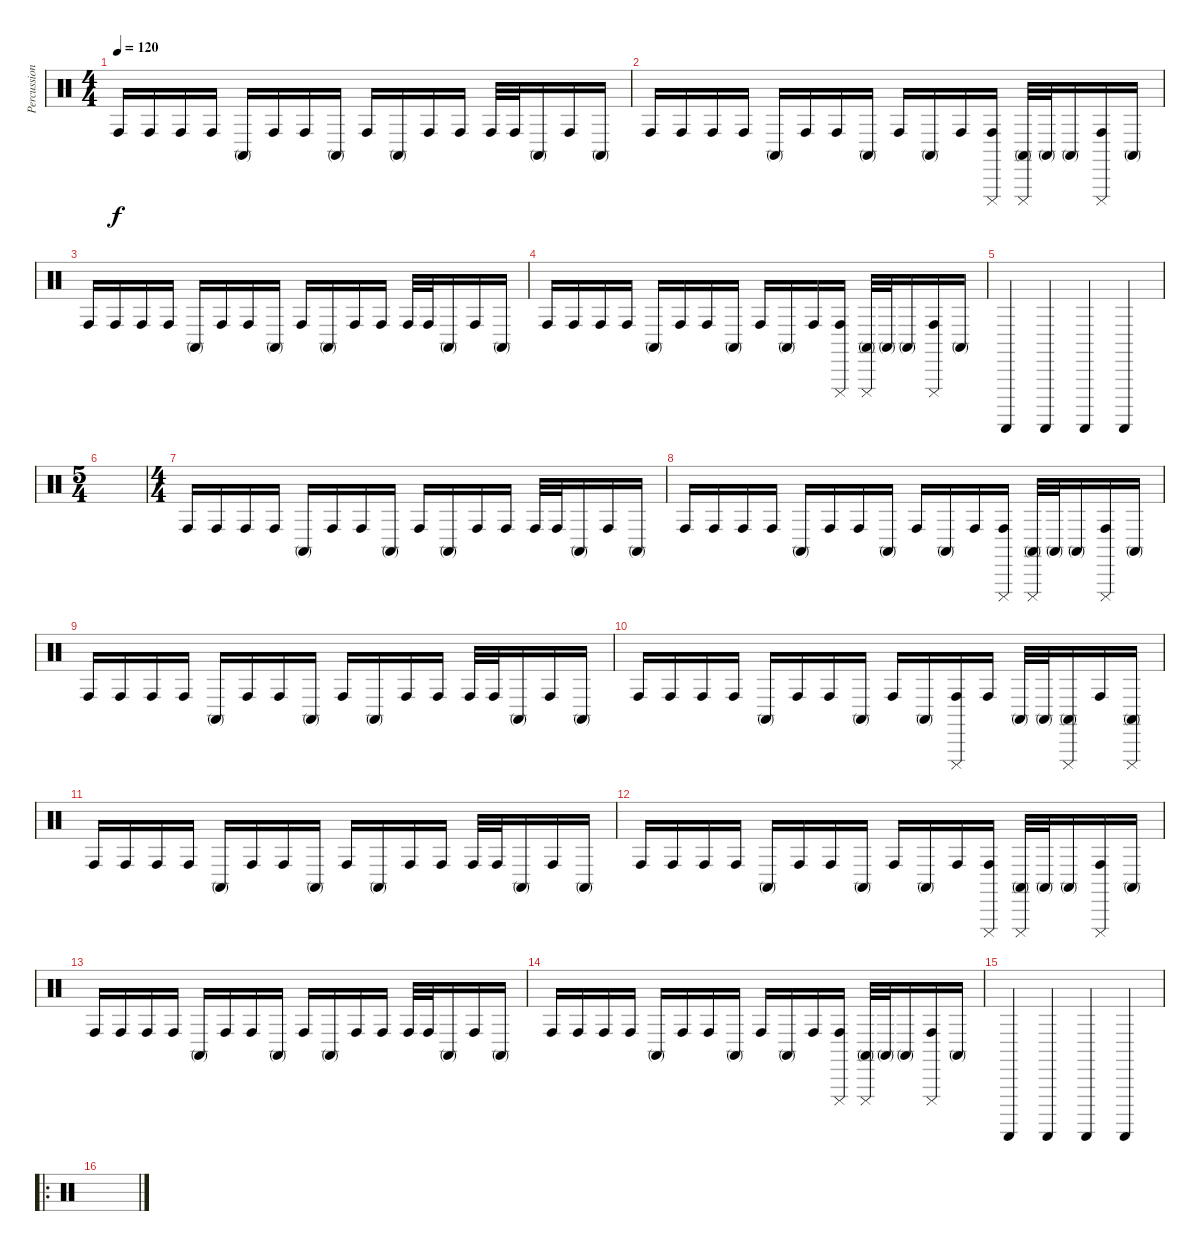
\track ("Percussion" "Percussion") {instrument percussion}
\staff {score}
\articulation defaults
\ts (4 4)
\tempo 120
\clef neutral
\ks c "Conga high (hit)".16{dy f} "Conga high (hit)".16 "Conga high (hit)".16 "Conga high (hit)".16 "Conga high (mute)".16 "Conga high (hit)".16 "Conga high (hit)".16 "Conga high (mute)".16 "Conga high (hit)".16 "Conga high (mute)".16 "Conga high (hit)".16 "Conga high (hit)".16 "Conga high (hit)".32 "Conga high (hit)".32 "Conga high (mute)".16 "Conga high (hit)".16 "Conga high (mute)".16
|
"Conga high (hit)".16 "Conga high (hit)".16 "Conga high (hit)".16 "Conga high (hit)".16 "Conga high (mute)".16 "Conga high (hit)".16 "Conga high (hit)".16 "Conga high (mute)".16 "Conga high (hit)".16 "Conga high (mute)".16 "Conga high (hit)".16 ("Cuica (mute)" "Conga high (hit)").16 ("Cuica (mute)" "Conga high (mute)").32 "Conga high (mute)".32 "Conga high (mute)".16 ("Cuica (mute)" "Conga high (hit)").16 "Conga high (mute)".16 |
"Conga high (hit)".16 "Conga high (hit)".16 "Conga high (hit)".16 "Conga high (hit)".16 "Conga high (mute)".16 "Conga high (hit)".16 "Conga high (hit)".16 "Conga high (mute)".16 "Conga high (hit)".16 "Conga high (mute)".16 "Conga high (hit)".16 "Conga high (hit)".16 "Conga high (hit)".32 "Conga high (hit)".32 "Conga high (mute)".16 "Conga high (hit)".16 "Conga high (mute)".16 |
"Conga high (hit)".16 "Conga high (hit)".16 "Conga high (hit)".16 "Conga high (hit)".16 "Conga high (mute)".16 "Conga high (hit)".16 "Conga high (hit)".16 "Conga high (mute)".16 "Conga high (hit)".16 "Conga high (mute)".16 "Conga high (hit)".16 ("Cuica (mute)" "Conga high (hit)").16 ("Cuica (mute)" "Conga high (mute)").32 "Conga high (mute)".32 "Conga high (mute)".16 ("Cuica (mute)" "Conga high (hit)").16 "Conga high (mute)".16 |
"Guiro (scrap-return)".4 "Guiro (scrap-return)".4 "Guiro (scrap-return)".4 "Guiro (scrap-return)".4 |
\ts (5 4)
|
\ts (4 4)
"Conga high (hit)".16 "Conga high (hit)".16 "Conga high (hit)".16 "Conga high (hit)".16 "Conga high (mute)".16 "Conga high (hit)".16 "Conga high (hit)".16 "Conga high (mute)".16 "Conga high (hit)".16 "Conga high (mute)".16 "Conga high (hit)".16 "Conga high (hit)".16 "Conga high (hit)".32 "Conga high (hit)".32 "Conga high (mute)".16 "Conga high (hit)".16 "Conga high (mute)".16 |
"Conga high (hit)".16 "Conga high (hit)".16 "Conga high (hit)".16 "Conga high (hit)".16 "Conga high (mute)".16 "Conga high (hit)".16 "Conga high (hit)".16 "Conga high (mute)".16 "Conga high (hit)".16 "Conga high (mute)".16 "Conga high (hit)".16 ("Cuica (mute)" "Conga high (hit)").16 ("Cuica (mute)" "Conga high (mute)").32 "Conga high (mute)".32 "Conga high (mute)".16 ("Cuica (mute)" "Conga high (hit)").16 "Conga high (mute)".16 |
"Conga high (hit)".16 "Conga high (hit)".16 "Conga high (hit)".16 "Conga high (hit)".16 "Conga high (mute)".16 "Conga high (hit)".16 "Conga high (hit)".16 "Conga high (mute)".16 "Conga high (hit)".16 "Conga high (mute)".16 "Conga high (hit)".16 "Conga high (hit)".16 "Conga high (hit)".32 "Conga high (hit)".32 "Conga high (mute)".16 "Conga high (hit)".16 "Conga high (mute)".16 |
"Conga high (hit)".16 "Conga high (hit)".16 "Conga high (hit)".16 "Conga high (hit)".16 "Conga high (mute)".16 "Conga high (hit)".16 "Conga high (hit)".16 "Conga high (mute)".16 "Conga high (hit)".16 "Conga high (mute)".16 ("Cuica (mute)" "Conga high (hit)").16 "Conga high (hit)".16 "Conga high (mute)".32 "Conga high (mute)".32 ("Cuica (mute)" "Conga high (mute)").16 "Conga high (hit)".16 ("Cuica (mute)" "Conga high (mute)").16 |
"Conga high (hit)".16 "Conga high (hit)".16 "Conga high (hit)".16 "Conga high (hit)".16 "Conga high (mute)".16 "Conga high (hit)".16 "Conga high (hit)".16 "Conga high (mute)".16 "Conga high (hit)".16 "Conga high (mute)".16 "Conga high (hit)".16 "Conga high (hit)".16 "Conga high (hit)".32 "Conga high (hit)".32 "Conga high (mute)".16 "Conga high (hit)".16 "Conga high (mute)".16 |
"Conga high (hit)".16 "Conga high (hit)".16 "Conga high (hit)".16 "Conga high (hit)".16 "Conga high (mute)".16 "Conga high (hit)".16 "Conga high (hit)".16 "Conga high (mute)".16 "Conga high (hit)".16 "Conga high (mute)".16 "Conga high (hit)".16 ("Cuica (mute)" "Conga high (hit)").16 ("Cuica (mute)" "Conga high (mute)").32 "Conga high (mute)".32 "Conga high (mute)".16 ("Cuica (mute)" "Conga high (hit)").16 "Conga high (mute)".16 |
"Conga high (hit)".16 "Conga high (hit)".16 "Conga high (hit)".16 "Conga high (hit)".16 "Conga high (mute)".16 "Conga high (hit)".16 "Conga high (hit)".16 "Conga high (mute)".16 "Conga high (hit)".16 "Conga high (mute)".16 "Conga high (hit)".16 "Conga high (hit)".16 "Conga high (hit)".32 "Conga high (hit)".32 "Conga high (mute)".16 "Conga high (hit)".16 "Conga high (mute)".16 |
"Conga high (hit)".16 "Conga high (hit)".16 "Conga high (hit)".16 "Conga high (hit)".16 "Conga high (mute)".16 "Conga high (hit)".16 "Conga high (hit)".16 "Conga high (mute)".16 "Conga high (hit)".16 "Conga high (mute)".16 "Conga high (hit)".16 ("Cuica (mute)" "Conga high (hit)").16 ("Cuica (mute)" "Conga high (mute)").32 "Conga high (mute)".32 "Conga high (mute)".16 ("Cuica (mute)" "Conga high (hit)").16 "Conga high (mute)".16 |
"Guiro (scrap-return)".4 "Guiro (scrap-return)".4 "Guiro (scrap-return)".4 "Guiro (scrap-return)".4 |
\ro
